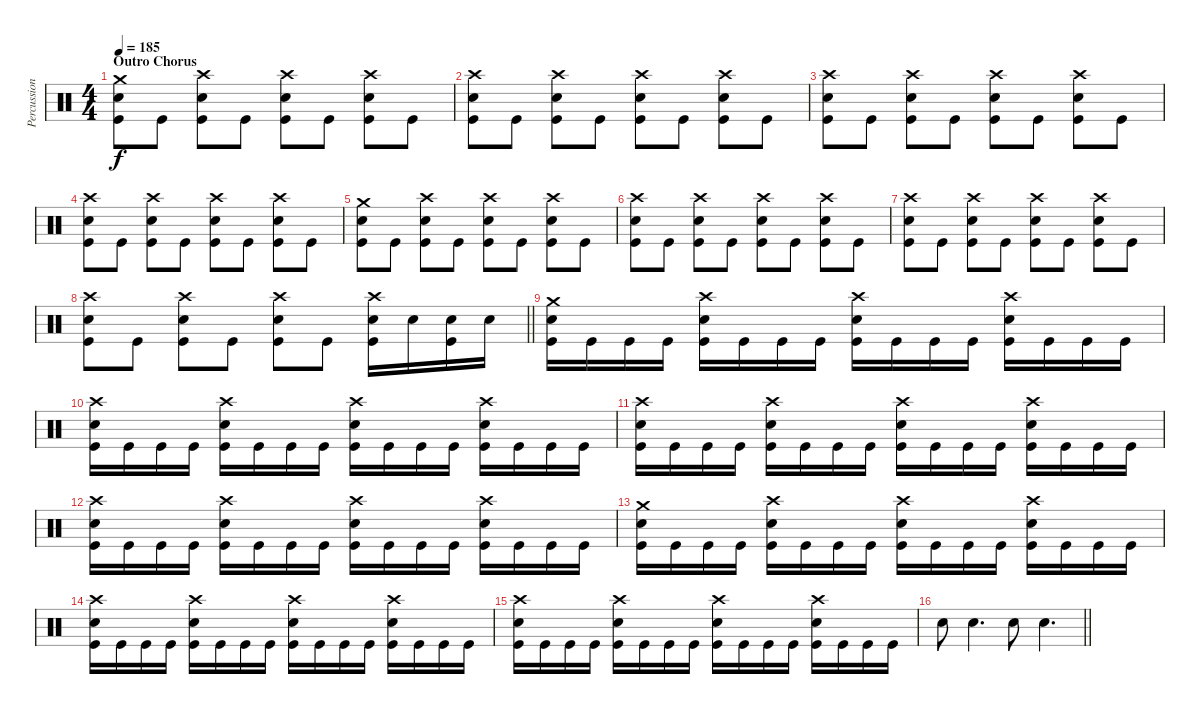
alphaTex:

\track ("Percussion" "Percussion") {instrument percussion}
\staff {score}
\articulation defaults
\ts (4 4)
\section ("" "Outro Chorus")
\tempo 185
\clef neutral
\ks c
("Crash medium (hit)" "Electric Snare (hit)" "Kick (hit)").8{dy f} "Kick (hit)".8 ("Crash high (hit)" "Electric Snare (hit)" "Kick (hit)").8 "Kick (hit)".8 ("Crash high (hit)" "Electric Snare (hit)" "Kick (hit)").8 "Kick (hit)".8 ("Crash high (hit)" "Electric Snare (hit)" "Kick (hit)").8 "Kick (hit)".8 |
("Crash high (hit)" "Electric Snare (hit)" "Kick (hit)").8 "Kick (hit)".8 ("Crash high (hit)" "Electric Snare (hit)" "Kick (hit)").8 "Kick (hit)".8 ("Crash high (hit)" "Electric Snare (hit)" "Kick (hit)").8 "Kick (hit)".8 ("Crash high (hit)" "Electric Snare (hit)" "Kick (hit)").8 "Kick (hit)".8 |
("Crash high (hit)" "Electric Snare (hit)" "Kick (hit)").8 "Kick (hit)".8 ("Crash high (hit)" "Electric Snare (hit)" "Kick (hit)").8 "Kick (hit)".8 ("Crash high (hit)" "Electric Snare (hit)" "Kick (hit)").8 "Kick (hit)".8 ("Crash high (hit)" "Electric Snare (hit)" "Kick (hit)").8 "Kick (hit)".8 |
("Crash high (hit)" "Electric Snare (hit)" "Kick (hit)").8 "Kick (hit)".8 ("Crash high (hit)" "Electric Snare (hit)" "Kick (hit)").8 "Kick (hit)".8 ("Crash high (hit)" "Electric Snare (hit)" "Kick (hit)").8 "Kick (hit)".8 ("Crash high (hit)" "Electric Snare (hit)" "Kick (hit)").8 "Kick (hit)".8 |
("Crash medium (hit)" "Electric Snare (hit)" "Kick (hit)").8 "Kick (hit)".8 ("Crash high (hit)" "Electric Snare (hit)" "Kick (hit)").8 "Kick (hit)".8 ("Crash high (hit)" "Electric Snare (hit)" "Kick (hit)").8 "Kick (hit)".8 ("Crash high (hit)" "Electric Snare (hit)" "Kick (hit)").8 "Kick (hit)".8 |
("Crash high (hit)" "Electric Snare (hit)" "Kick (hit)").8 "Kick (hit)".8 ("Crash high (hit)" "Electric Snare (hit)" "Kick (hit)").8 "Kick (hit)".8 ("Crash high (hit)" "Electric Snare (hit)" "Kick (hit)").8 "Kick (hit)".8 ("Crash high (hit)" "Electric Snare (hit)" "Kick (hit)").8 "Kick (hit)".8 |
("Crash high (hit)" "Electric Snare (hit)" "Kick (hit)").8 "Kick (hit)".8 ("Crash high (hit)" "Electric Snare (hit)" "Kick (hit)").8 "Kick (hit)".8 ("Crash high (hit)" "Electric Snare (hit)" "Kick (hit)").8 "Kick (hit)".8 ("Crash high (hit)" "Electric Snare (hit)" "Kick (hit)").8 "Kick (hit)".8 |
\barLineRight lightlight
("Crash high (hit)" "Electric Snare (hit)" "Kick (hit)").8 "Kick (hit)".8 ("Crash high (hit)" "Electric Snare (hit)" "Kick (hit)").8 "Kick (hit)".8 ("Crash high (hit)" "Electric Snare (hit)" "Kick (hit)").8 "Kick (hit)".8 ("Crash high (hit)" "Electric Snare (hit)" "Kick (hit)").16 "Electric Snare (hit)".16 ("Electric Snare (hit)" "Kick (hit)").16 "Electric Snare (hit)".16 |
("Crash medium (hit)" "Electric Snare (hit)" "Kick (hit)").16 "Kick (hit)".16 "Kick (hit)".16 "Kick (hit)".16 ("Crash high (hit)" "Electric Snare (hit)" "Kick (hit)").16 "Kick (hit)".16 "Kick (hit)".16 "Kick (hit)".16 ("Crash high (hit)" "Electric Snare (hit)" "Kick (hit)").16 "Kick (hit)".16 "Kick (hit)".16 "Kick (hit)".16 ("Crash high (hit)" "Electric Snare (hit)" "Kick (hit)").16 "Kick (hit)".16 "Kick (hit)".16 "Kick (hit)".16 |
("Crash high (hit)" "Electric Snare (hit)" "Kick (hit)").16 "Kick (hit)".16 "Kick (hit)".16 "Kick (hit)".16 ("Crash high (hit)" "Electric Snare (hit)" "Kick (hit)").16 "Kick (hit)".16 "Kick (hit)".16 "Kick (hit)".16 ("Crash high (hit)" "Electric Snare (hit)" "Kick (hit)").16 "Kick (hit)".16 "Kick (hit)".16 "Kick (hit)".16 ("Crash high (hit)" "Electric Snare (hit)" "Kick (hit)").16 "Kick (hit)".16 "Kick (hit)".16 "Kick (hit)".16 |
("Crash high (hit)" "Electric Snare (hit)" "Kick (hit)").16 "Kick (hit)".16 "Kick (hit)".16 "Kick (hit)".16 ("Crash high (hit)" "Electric Snare (hit)" "Kick (hit)").16 "Kick (hit)".16 "Kick (hit)".16 "Kick (hit)".16 ("Crash high (hit)" "Electric Snare (hit)" "Kick (hit)").16 "Kick (hit)".16 "Kick (hit)".16 "Kick (hit)".16 ("Crash high (hit)" "Electric Snare (hit)" "Kick (hit)").16 "Kick (hit)".16 "Kick (hit)".16 "Kick (hit)".16 |
("Crash high (hit)" "Electric Snare (hit)" "Kick (hit)").16 "Kick (hit)".16 "Kick (hit)".16 "Kick (hit)".16 ("Crash high (hit)" "Electric Snare (hit)" "Kick (hit)").16 "Kick (hit)".16 "Kick (hit)".16 "Kick (hit)".16 ("Crash high (hit)" "Electric Snare (hit)" "Kick (hit)").16 "Kick (hit)".16 "Kick (hit)".16 "Kick (hit)".16 ("Crash high (hit)" "Electric Snare (hit)" "Kick (hit)").16 "Kick (hit)".16 "Kick (hit)".16 "Kick (hit)".16 |
("Crash medium (hit)" "Electric Snare (hit)" "Kick (hit)").16 "Kick (hit)".16 "Kick (hit)".16 "Kick (hit)".16 ("Crash high (hit)" "Electric Snare (hit)" "Kick (hit)").16 "Kick (hit)".16 "Kick (hit)".16 "Kick (hit)".16 ("Crash high (hit)" "Electric Snare (hit)" "Kick (hit)").16 "Kick (hit)".16 "Kick (hit)".16 "Kick (hit)".16 ("Crash high (hit)" "Electric Snare (hit)" "Kick (hit)").16 "Kick (hit)".16 "Kick (hit)".16 "Kick (hit)".16 |
("Crash high (hit)" "Electric Snare (hit)" "Kick (hit)").16 "Kick (hit)".16 "Kick (hit)".16 "Kick (hit)".16 ("Crash high (hit)" "Electric Snare (hit)" "Kick (hit)").16 "Kick (hit)".16 "Kick (hit)".16 "Kick (hit)".16 ("Crash high (hit)" "Electric Snare (hit)" "Kick (hit)").16 "Kick (hit)".16 "Kick (hit)".16 "Kick (hit)".16 ("Crash high (hit)" "Electric Snare (hit)" "Kick (hit)").16 "Kick (hit)".16 "Kick (hit)".16 "Kick (hit)".16 |
("Crash high (hit)" "Electric Snare (hit)" "Kick (hit)").16 "Kick (hit)".16 "Kick (hit)".16 "Kick (hit)".16 ("Crash high (hit)" "Electric Snare (hit)" "Kick (hit)").16 "Kick (hit)".16 "Kick (hit)".16 "Kick (hit)".16 ("Crash high (hit)" "Electric Snare (hit)" "Kick (hit)").16 "Kick (hit)".16 "Kick (hit)".16 "Kick (hit)".16 ("Crash high (hit)" "Electric Snare (hit)" "Kick (hit)").16 "Kick (hit)".16 "Kick (hit)".16 "Kick (hit)".16 |
\barLineRight lightlight "Electric Snare (hit)".8 "Electric Snare (hit)".4{d} "Electric Snare (hit)".8 "Electric Snare (hit)".4{d}
